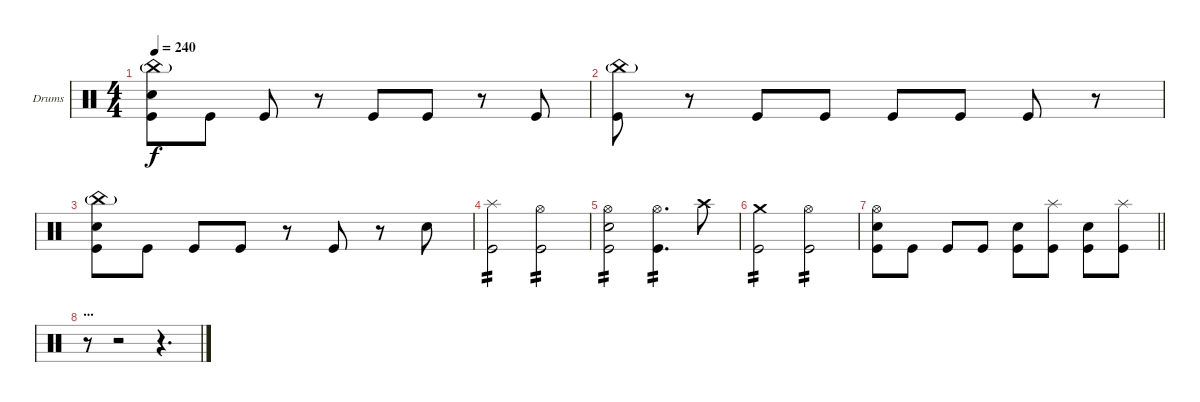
\bracketExtendMode groupsimilarinstruments
\firstSystemTrackNameOrientation horizontal
\otherSystemsTrackNameOrientation horizontal
\track ("Drumkit" "Drums") {instrument percussion}
\staff {score}
\articulation defaults
\ts (4 4)
\tempo 240
\clef neutral
\ks c
("China (hit)"{g} "Snare (hit) 2" "Kick (hit)").8{dy f} "Kick (hit)".8 "Kick (hit)".8 r.8 "Kick (hit)".8 "Kick (hit)".8 r.8 "Kick (hit)".8 |
("China (hit)"{g} "Kick (hit)").8 r.8 "Kick (hit)".8 "Kick (hit)".8 "Kick (hit)".8 "Kick (hit)".8 "Kick (hit)".8 r.8 |
("China (hit)"{g} "Snare (hit) 2" "Kick (hit)").8 "Kick (hit)".8 "Kick (hit)".8 "Kick (hit)".8 r.8 "Kick (hit)".8 r.8 "Snare (hit) 2".8 |
("Splash (hit)" "Kick (hit)").2{tp 2} ("Hi-Hat (open)" "Kick (hit)").2{tp 2} |
("Hi-Hat (open)" "Snare (hit) 2" "Kick (hit)").2{tp 2} ("Hi-Hat (open)" "Kick (hit)").4{d tp 2} "Crash high (hit)".8 |
("Crash medium (hit)" "Kick (hit)").2{tp 2} ("Hi-Hat (open)" "Kick (hit)").2{tp 2} |
\barLineRight lightlight
("Hi-Hat (open)" "Snare (hit) 2" "Kick (hit)").8 "Kick (hit)".8 "Kick (hit)".8 "Kick (hit)".8 ("Snare (hit) 2" "Kick (hit)").8 ("Splash (hit)" "Kick (hit)").8 ("Snare (hit) 2" "Kick (hit)").8 ("Splash (hit)" "Kick (hit)").8 |
\section ("" "...")
r.8 r.2 r.4{d}
